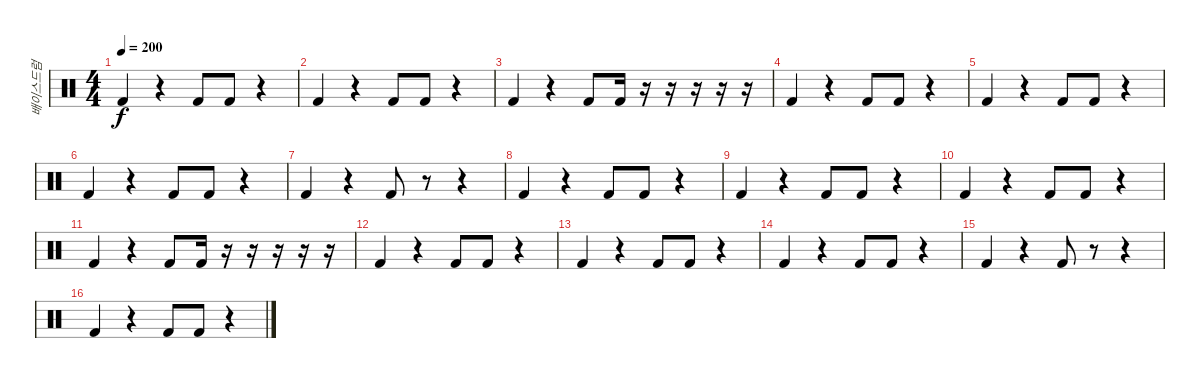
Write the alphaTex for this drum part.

\track ("배이스드럼" "배이스드럼") {instrument percussion}
\staff {score}
\articulation defaults
\ts (4 4)
\tempo 200
\clef neutral
\ks c "Kick (hit) 2".4{dy f}
r.4 "Kick (hit) 2".8 "Kick (hit) 2".8 r.4 |
"Kick (hit) 2".4 r.4 "Kick (hit) 2".8 "Kick (hit) 2".8 r.4 |
"Kick (hit) 2".4 r.4 "Kick (hit) 2".8 "Kick (hit) 2".16 r.16 r.16 r.16 r.16 r.16 |
"Kick (hit) 2".4 r.4 "Kick (hit) 2".8 "Kick (hit) 2".8 r.4 |
"Kick (hit) 2".4 r.4 "Kick (hit) 2".8 "Kick (hit) 2".8 r.4 |
"Kick (hit) 2".4 r.4 "Kick (hit) 2".8 "Kick (hit) 2".8 r.4 |
"Kick (hit) 2".4 r.4 "Kick (hit) 2".8 r.8 r.4 |
"Kick (hit) 2".4 r.4 "Kick (hit) 2".8 "Kick (hit) 2".8 r.4 |
"Kick (hit) 2".4 r.4 "Kick (hit) 2".8 "Kick (hit) 2".8 r.4 |
"Kick (hit) 2".4 r.4 "Kick (hit) 2".8 "Kick (hit) 2".8 r.4 |
"Kick (hit) 2".4 r.4 "Kick (hit) 2".8 "Kick (hit) 2".16 r.16 r.16 r.16 r.16 r.16 |
"Kick (hit) 2".4 r.4 "Kick (hit) 2".8 "Kick (hit) 2".8 r.4 |
"Kick (hit) 2".4 r.4 "Kick (hit) 2".8 "Kick (hit) 2".8 r.4 |
"Kick (hit) 2".4 r.4 "Kick (hit) 2".8 "Kick (hit) 2".8 r.4 |
"Kick (hit) 2".4 r.4 "Kick (hit) 2".8 r.8 r.4 |
"Kick (hit) 2".4 r.4 "Kick (hit) 2".8 "Kick (hit) 2".8 r.4
